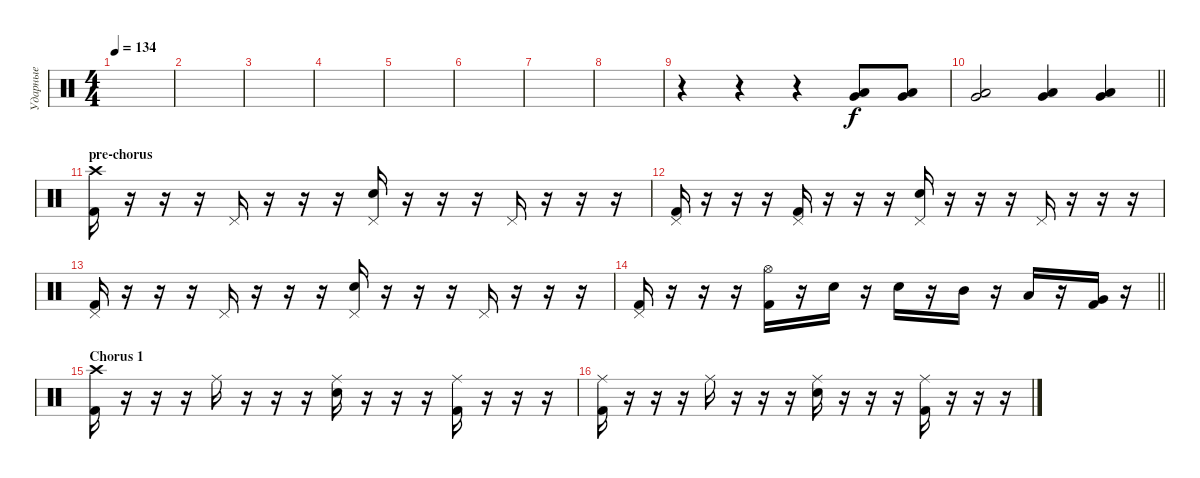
\track ("Ударные" "Ударные") {instrument percussion}
\staff {score}
\articulation defaults
\ts (4 4)
\tempo 134
\clef neutral
\ks c
|
|
|
|
|
|
|
|
r.4 r.4 r.4 ("Very Low Tom (hit)" "Low Tom (hit)").8 ("Very Low Tom (hit)" "Low Tom (hit)").8 |
\barLineRight lightlight
("Very Low Tom (hit)" "Low Tom (hit)").2 ("Very Low Tom (hit)" "Low Tom (hit)").4 ("Very Low Tom (hit)" "Low Tom (hit)").4 |
\section ("" "pre-chorus")
("Crash high (hit)" "Kick (hit) 2").16 r.16 r.16 r.16 "Pedal Hi-Hat (hit)".16 r.16 r.16 r.16 ("Pedal Hi-Hat (hit)" "Snare (hit) 2").16 r.16 r.16 r.16 "Pedal Hi-Hat (hit)".16 r.16 r.16 r.16 |
("Pedal Hi-Hat (hit)" "Kick (hit) 2").16 r.16 r.16 r.16 ("Pedal Hi-Hat (hit)" "Kick (hit) 2").16 r.16 r.16 r.16 ("Pedal Hi-Hat (hit)" "Snare (hit) 2").16 r.16 r.16 r.16 "Pedal Hi-Hat (hit)".16 r.16 r.16 r.16 |
("Pedal Hi-Hat (hit)" "Kick (hit) 2").16 r.16 r.16 r.16 "Pedal Hi-Hat (hit)".16 r.16 r.16 r.16 ("Pedal Hi-Hat (hit)" "Snare (hit) 2").16 r.16 r.16 r.16 "Pedal Hi-Hat (hit)".16 r.16 r.16 r.16 |
\barLineRight lightlight
("Pedal Hi-Hat (hit)" "Kick (hit) 2").16 r.16 r.16 r.16 ("Hi-Hat (open)" "Kick (hit) 2").16 r.16 "Snare (hit) 2".16 r.16 "Snare (hit) 2".16 r.16 "Mid Tom (hit)".16 r.16 "Low Tom (hit)".16 r.16 ("Very Low Tom (hit)" "Kick (hit) 2").16 r.16 |
\section ("" "Chorus 1")
("Crash high (hit)" "Kick (hit) 2").16 r.16 r.16 r.16 "Ride (middle)".16 r.16 r.16 r.16 ("Ride (middle)" "Snare (hit) 2").16 r.16 r.16 r.16 ("Ride (middle)" "Kick (hit) 2").16 r.16 r.16 r.16 |
("Ride (middle)" "Kick (hit) 2").16 r.16 r.16 r.16 "Ride (middle)".16 r.16 r.16 r.16 ("Ride (middle)" "Snare (hit) 2").16 r.16 r.16 r.16 ("Ride (middle)" "Kick (hit) 2").16 r.16 r.16 r.16
